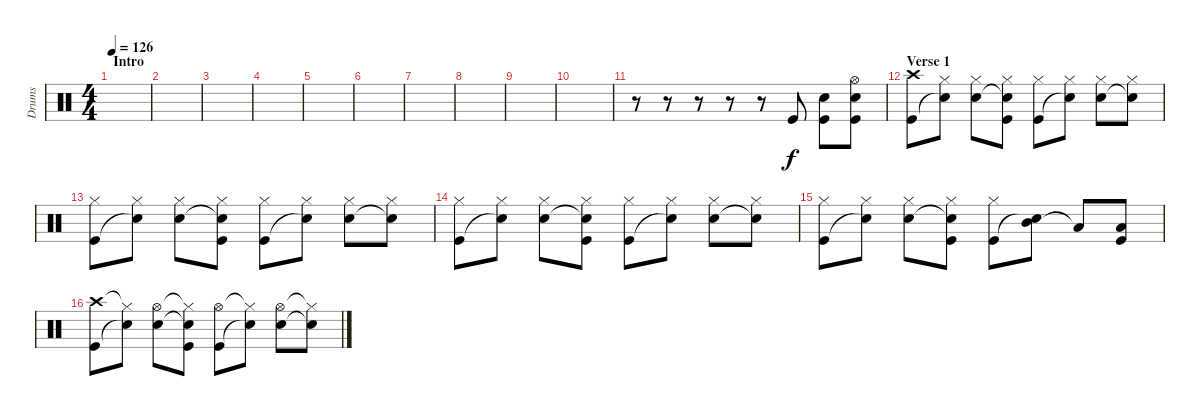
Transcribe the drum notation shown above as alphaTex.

\track ("Drums" "Drums") {instrument percussion}
\staff {score}
\articulation defaults
\ts (4 4)
\section ("" "Intro")
\tempo 126
\clef neutral
\ks c
|
|
|
|
|
|
|
|
|
|
r.8 r.8 r.8 r.8 r.8 "Kick (hit)".8 ("Electric Snare (hit)" "Kick (hit)").8 ("Hi-Hat (open)" "Electric Snare (hit)" "Kick (hit)").8 |
\section ("" "Verse 1")
("Crash high (hit)" "Kick (hit)").8 ("Hi-Hat (closed)" "Snare (hit)"{t}).8 ("Hi-Hat (closed)" "Electric Snare (hit)").8 ("Hi-Hat (closed)" "Snare (hit)"{t} "Kick (hit)").8 ("Hi-Hat (closed)" "Kick (hit)").8 ("Hi-Hat (closed)" "Snare (hit)"{t}).8 ("Hi-Hat (closed)" "Electric Snare (hit)").8 ("Hi-Hat (closed)" "Snare (hit)"{t}).8 |
("Hi-Hat (closed)" "Kick (hit)").8 ("Hi-Hat (closed)" "Snare (hit)"{t}).8 ("Hi-Hat (closed)" "Electric Snare (hit)").8 ("Hi-Hat (closed)" "Snare (hit)"{t} "Kick (hit)").8 ("Hi-Hat (closed)" "Kick (hit)").8 ("Hi-Hat (closed)" "Snare (hit)"{t}).8 ("Hi-Hat (closed)" "Electric Snare (hit)").8 ("Hi-Hat (closed)" "Snare (hit)"{t}).8 |
("Hi-Hat (closed)" "Kick (hit)").8 ("Hi-Hat (closed)" "Snare (hit)"{t}).8 ("Hi-Hat (closed)" "Electric Snare (hit)").8 ("Hi-Hat (closed)" "Snare (hit)"{t} "Kick (hit)").8 ("Hi-Hat (closed)" "Kick (hit)").8 ("Hi-Hat (closed)" "Snare (hit)"{t}).8 ("Hi-Hat (closed)" "Electric Snare (hit)").8 ("Hi-Hat (closed)" "Snare (hit)"{t}).8 |
("Hi-Hat (closed)" "Kick (hit)").8 ("Hi-Hat (closed)" "Snare (hit)"{t}).8 ("Hi-Hat (closed)" "Electric Snare (hit)").8 ("Hi-Hat (closed)" "Snare (hit)"{t} "Kick (hit)").8 ("Hi-Hat (closed)" "Kick (hit)").8 ("Mid Tom (hit)" "Snare (hit)"{t}).8 "Low Tom (hit)"{t}.8 ("Low Tom (hit)" "Kick (hit)").8 |
("Crash high (hit)" "Kick (hit)").8 ("Hi-Hat (closed)"{t} "Snare (hit)"{t}).8 ("Hi-Hat (open)" "Electric Snare (hit)").8 ("Hi-Hat (closed)"{t} "Snare (hit)"{t} "Kick (hit)").8 ("Hi-Hat (open)" "Kick (hit)").8 ("Hi-Hat (closed)"{t} "Snare (hit)"{t}).8 ("Hi-Hat (open)" "Electric Snare (hit)").8 ("Hi-Hat (closed)"{t} "Snare (hit)"{t}).8
